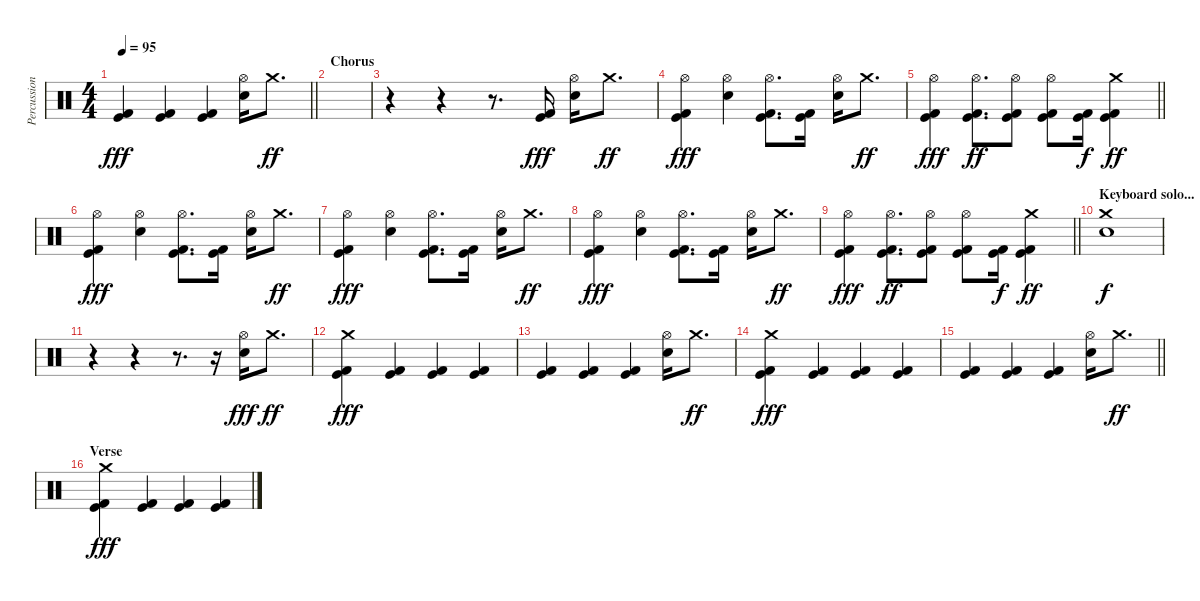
\track ("Percussion" "Percussion") {instrument percussion}
\staff {score}
\articulation defaults
\ts (4 4)
\tempo 95
\clef neutral
\barLineRight lightlight
\ks c
("Kick (hit)" "Kick (hit) 2").4{dy fff} ("Kick (hit)" "Kick (hit) 2").4 ("Kick (hit)" "Kick (hit) 2").4 ("Hi-Hat (open)" "Snare (hit) 2").16 "Crash medium (hit)".8{d dy ff} |
\section ("" "Chorus")
|
r.4 r.4 r.8{d} ("Kick (hit)" "Kick (hit) 2").16{dy fff} ("Hi-Hat (open)" "Snare (hit) 2").16 "Crash medium (hit)".8{d dy ff} |
("Hi-Hat (open)" "Kick (hit)" "Kick (hit) 2").4{dy fff} ("Hi-Hat (open)" "Snare (hit) 2").4 ("Hi-Hat (open)" "Kick (hit)" "Kick (hit) 2").8{d} ("Kick (hit)" "Kick (hit) 2").16 ("Hi-Hat (open)" "Snare (hit) 2").16 "Crash medium (hit)".8{d dy ff} |
\barLineRight lightlight
("Hi-Hat (open)" "Kick (hit)" "Kick (hit) 2").4{dy fff} ("Hi-Hat (open)" "Kick (hit)" "Kick (hit) 2").8{d dy ff} ("Hi-Hat (open)" "Kick (hit)" "Kick (hit) 2").8 ("Hi-Hat (open)" "Kick (hit)" "Kick (hit) 2").8 ("Kick (hit)" "Kick (hit) 2").16{dy f} ("Crash medium (hit)" "Kick (hit)" "Kick (hit) 2").4{dy ff} |
("Hi-Hat (open)" "Kick (hit)" "Kick (hit) 2").4{dy fff} ("Hi-Hat (open)" "Snare (hit) 2").4 ("Hi-Hat (open)" "Kick (hit)" "Kick (hit) 2").8{d} ("Kick (hit)" "Kick (hit) 2").16 ("Hi-Hat (open)" "Snare (hit) 2").16 "Crash medium (hit)".8{d dy ff} |
("Hi-Hat (open)" "Kick (hit)" "Kick (hit) 2").4{dy fff} ("Hi-Hat (open)" "Snare (hit) 2").4 ("Hi-Hat (open)" "Kick (hit)" "Kick (hit) 2").8{d} ("Kick (hit)" "Kick (hit) 2").16 ("Hi-Hat (open)" "Snare (hit) 2").16 "Crash medium (hit)".8{d dy ff} |
("Hi-Hat (open)" "Kick (hit)" "Kick (hit) 2").4{dy fff} ("Hi-Hat (open)" "Snare (hit) 2").4 ("Hi-Hat (open)" "Kick (hit)" "Kick (hit) 2").8{d} ("Kick (hit)" "Kick (hit) 2").16 ("Hi-Hat (open)" "Snare (hit) 2").16 "Crash medium (hit)".8{d dy ff} |
\barLineRight lightlight
("Hi-Hat (open)" "Kick (hit)" "Kick (hit) 2").4{dy fff} ("Hi-Hat (open)" "Kick (hit)" "Kick (hit) 2").8{d dy ff} ("Hi-Hat (open)" "Kick (hit)" "Kick (hit) 2").8 ("Hi-Hat (open)" "Kick (hit)" "Kick (hit) 2").8 ("Kick (hit)" "Kick (hit) 2").16{dy f} ("Crash medium (hit)" "Kick (hit)" "Kick (hit) 2").4{dy ff} |
\section ("" "Keyboard solo...")
("Crash medium (hit)" "Snare (hit) 2").1{dy f} |
r.4 r.4 r.8{d} r.16 ("Hi-Hat (open)" "Snare (hit) 2").16{dy fff} "Crash medium (hit)".8{d dy ff} |
("Crash medium (hit)" "Kick (hit)" "Kick (hit) 2").4{dy fff} ("Kick (hit)" "Kick (hit) 2").4 ("Kick (hit)" "Kick (hit) 2").4 ("Kick (hit)" "Kick (hit) 2").4 |
("Kick (hit)" "Kick (hit) 2").4 ("Kick (hit)" "Kick (hit) 2").4 ("Kick (hit)" "Kick (hit) 2").4 ("Hi-Hat (open)" "Snare (hit) 2").16 "Crash medium (hit)".8{d dy ff} |
("Crash medium (hit)" "Kick (hit)" "Kick (hit) 2").4{dy fff} ("Kick (hit)" "Kick (hit) 2").4 ("Kick (hit)" "Kick (hit) 2").4 ("Kick (hit)" "Kick (hit) 2").4 |
\barLineRight lightlight
("Kick (hit)" "Kick (hit) 2").4 ("Kick (hit)" "Kick (hit) 2").4 ("Kick (hit)" "Kick (hit) 2").4 ("Hi-Hat (open)" "Snare (hit) 2").16 "Crash medium (hit)".8{d dy ff} |
\section ("" "Verse")
("Crash medium (hit)" "Kick (hit)" "Kick (hit) 2").4{dy fff} ("Kick (hit)" "Kick (hit) 2").4 ("Kick (hit)" "Kick (hit) 2").4 ("Kick (hit)" "Kick (hit) 2").4
